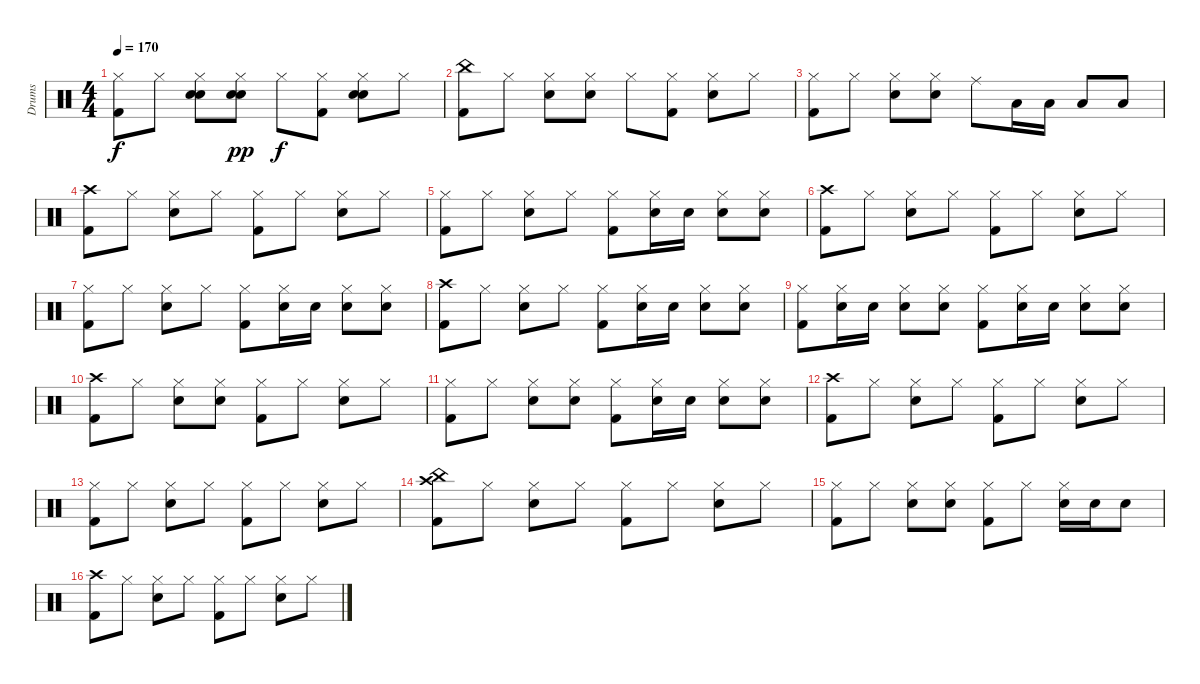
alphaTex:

\track ("Drums" "Drums") {instrument percussion}
\staff {score}
\articulation defaults
\ts (4 4)
\tempo 170
\clef neutral
\ks c
("Hi-Hat (closed)" "Kick (hit) 2").8{dy f} "Hi-Hat (closed)".8 ("Hi-Hat (closed)" "Electric Snare (hit)" "Snare (hit)").8 ("Hi-Hat (closed)" "Electric Snare (hit)" "Snare (hit)").8{dy pp} "Hi-Hat (closed)".8{dy f} ("Hi-Hat (closed)" "Kick (hit) 2").8 ("Hi-Hat (closed)" "Electric Snare (hit)" "Snare (hit)").8 "Hi-Hat (closed)".8 |
("China (hit)" "Kick (hit) 2").8 "Hi-Hat (closed)".8 ("Hi-Hat (closed)" "Electric Snare (hit)").8 ("Hi-Hat (closed)" "Electric Snare (hit)").8 "Hi-Hat (closed)".8 ("Hi-Hat (closed)" "Kick (hit) 2").8 ("Hi-Hat (closed)" "Electric Snare (hit)").8 "Hi-Hat (closed)".8 |
("Hi-Hat (closed)" "Kick (hit) 2").8 "Hi-Hat (closed)".8 ("Hi-Hat (closed)" "Electric Snare (hit)").8 ("Hi-Hat (closed)" "Electric Snare (hit)").8 "Ride (middle)".8 "Low Tom (hit)".16 "Low Tom (hit)".16 "Low Tom (hit)".8 "Low Tom (hit)".8 |
("Crash high (hit)" "Kick (hit) 2").8 "Hi-Hat (closed)".8 ("Hi-Hat (closed)" "Electric Snare (hit)").8 "Hi-Hat (closed)".8 ("Hi-Hat (closed)" "Kick (hit) 2").8 "Hi-Hat (closed)".8 ("Hi-Hat (closed)" "Electric Snare (hit)").8 "Hi-Hat (closed)".8 |
("Hi-Hat (closed)" "Kick (hit) 2").8 "Hi-Hat (closed)".8 ("Hi-Hat (closed)" "Electric Snare (hit)").8 "Hi-Hat (closed)".8 ("Hi-Hat (closed)" "Kick (hit) 2").8 ("Hi-Hat (closed)" "Electric Snare (hit)").16 "Electric Snare (hit)".16 ("Hi-Hat (closed)" "Electric Snare (hit)").8 ("Hi-Hat (closed)" "Electric Snare (hit)").8 |
("Crash high (hit)" "Kick (hit) 2").8 "Hi-Hat (closed)".8 ("Hi-Hat (closed)" "Electric Snare (hit)").8 "Hi-Hat (closed)".8 ("Hi-Hat (closed)" "Kick (hit) 2").8 "Hi-Hat (closed)".8 ("Hi-Hat (closed)" "Electric Snare (hit)").8 "Hi-Hat (closed)".8 |
("Hi-Hat (closed)" "Kick (hit) 2").8 "Hi-Hat (closed)".8 ("Hi-Hat (closed)" "Electric Snare (hit)").8 "Hi-Hat (closed)".8 ("Hi-Hat (closed)" "Kick (hit) 2").8 ("Hi-Hat (closed)" "Electric Snare (hit)").16 "Electric Snare (hit)".16 ("Hi-Hat (closed)" "Electric Snare (hit)").8 ("Hi-Hat (closed)" "Electric Snare (hit)").8 |
("Crash high (hit)" "Kick (hit) 2").8 "Hi-Hat (closed)".8 ("Hi-Hat (closed)" "Electric Snare (hit)").8 "Hi-Hat (closed)".8 ("Hi-Hat (closed)" "Kick (hit) 2").8 ("Hi-Hat (closed)" "Electric Snare (hit)").16 "Electric Snare (hit)".16 ("Hi-Hat (closed)" "Electric Snare (hit)").8 ("Hi-Hat (closed)" "Electric Snare (hit)").8 |
("Hi-Hat (closed)" "Kick (hit) 2").8 ("Hi-Hat (closed)" "Electric Snare (hit)").16 "Electric Snare (hit)".16 ("Hi-Hat (closed)" "Electric Snare (hit)").8 ("Hi-Hat (closed)" "Electric Snare (hit)").8 ("Hi-Hat (closed)" "Kick (hit) 2").8 ("Hi-Hat (closed)" "Electric Snare (hit)").16 "Electric Snare (hit)".16 ("Hi-Hat (closed)" "Electric Snare (hit)").8 ("Hi-Hat (closed)" "Electric Snare (hit)").8 |
("Crash high (hit)" "Kick (hit) 2").8 "Hi-Hat (closed)".8 ("Hi-Hat (closed)" "Electric Snare (hit)").8 ("Hi-Hat (closed)" "Electric Snare (hit)").8 ("Hi-Hat (closed)" "Kick (hit) 2").8 "Hi-Hat (closed)".8 ("Hi-Hat (closed)" "Electric Snare (hit)").8 "Hi-Hat (closed)".8 |
("Hi-Hat (closed)" "Kick (hit) 2").8 "Hi-Hat (closed)".8 ("Hi-Hat (closed)" "Electric Snare (hit)").8 ("Hi-Hat (closed)" "Electric Snare (hit)").8 ("Hi-Hat (closed)" "Kick (hit) 2").8 ("Hi-Hat (closed)" "Electric Snare (hit)").16 "Electric Snare (hit)".16 ("Hi-Hat (closed)" "Electric Snare (hit)").8 ("Hi-Hat (closed)" "Electric Snare (hit)").8 |
("Crash high (hit)" "Kick (hit) 2").8 "Hi-Hat (closed)".8 ("Hi-Hat (closed)" "Electric Snare (hit)").8 "Hi-Hat (closed)".8 ("Hi-Hat (closed)" "Kick (hit) 2").8 "Hi-Hat (closed)".8 ("Hi-Hat (closed)" "Electric Snare (hit)").8 "Hi-Hat (closed)".8 |
("Hi-Hat (closed)" "Kick (hit) 2").8 "Hi-Hat (closed)".8 ("Hi-Hat (closed)" "Electric Snare (hit)").8 "Hi-Hat (closed)".8 ("Hi-Hat (closed)" "Kick (hit) 2").8 "Hi-Hat (closed)".8 ("Hi-Hat (closed)" "Electric Snare (hit)").8 "Hi-Hat (closed)".8 |
("China (hit)" "Crash high (hit)" "Kick (hit) 2").8 "Hi-Hat (closed)".8 ("Hi-Hat (closed)" "Electric Snare (hit)").8 "Hi-Hat (closed)".8 ("Hi-Hat (closed)" "Kick (hit) 2").8 "Hi-Hat (closed)".8 ("Hi-Hat (closed)" "Electric Snare (hit)").8 "Hi-Hat (closed)".8 |
("Hi-Hat (closed)" "Kick (hit) 2").8 "Hi-Hat (closed)".8 ("Hi-Hat (closed)" "Electric Snare (hit)").8 ("Hi-Hat (closed)" "Electric Snare (hit)").8 ("Hi-Hat (closed)" "Kick (hit) 2").8 "Hi-Hat (closed)".8 ("Hi-Hat (closed)" "Electric Snare (hit)").16 "Electric Snare (hit)".16 "Electric Snare (hit)".8 |
("Crash high (hit)" "Kick (hit) 2").8 "Hi-Hat (closed)".8 ("Hi-Hat (closed)" "Electric Snare (hit)").8 "Hi-Hat (closed)".8 ("Hi-Hat (closed)" "Kick (hit) 2").8 "Hi-Hat (closed)".8 ("Hi-Hat (closed)" "Electric Snare (hit)").8 "Hi-Hat (closed)".8
